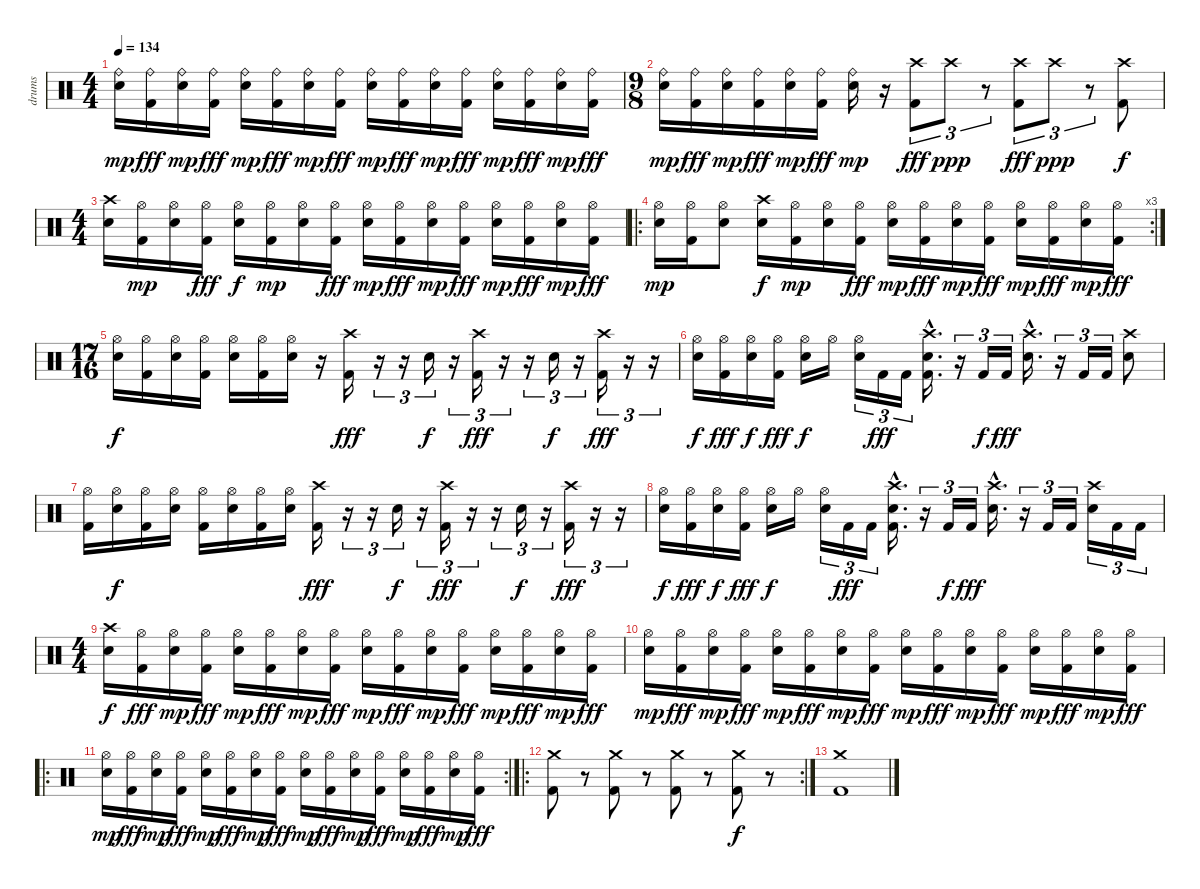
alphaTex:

\track ("drums" "drums") {instrument percussion}
\staff {score}
\articulation defaults
\ts (4 4)
\tempo 134
\clef neutral
\ks c
("Ride (bell)" "Snare (hit) 2").16{dy mp} ("Ride (bell)" "Kick (hit) 2").16{dy fff} ("Ride (bell)" "Snare (hit) 2").16{dy mp} ("Ride (bell)" "Kick (hit) 2").16{dy fff} ("Ride (bell)" "Snare (hit) 2").16{dy mp} ("Ride (bell)" "Kick (hit) 2").16{dy fff} ("Ride (bell)" "Snare (hit) 2").16{dy mp} ("Ride (bell)" "Kick (hit) 2").16{dy fff} ("Ride (bell)" "Snare (hit) 2").16{dy mp} ("Ride (bell)" "Kick (hit) 2").16{dy fff} ("Ride (bell)" "Snare (hit) 2").16{dy mp} ("Ride (bell)" "Kick (hit) 2").16{dy fff} ("Ride (bell)" "Snare (hit) 2").16{dy mp} ("Ride (bell)" "Kick (hit) 2").16{dy fff} ("Ride (bell)" "Snare (hit) 2").16{dy mp} ("Ride (bell)" "Kick (hit) 2").16{dy fff} |
\ts (9 8)
("Ride (bell)" "Snare (hit) 2").16{dy mp} ("Ride (bell)" "Kick (hit) 2").16{dy fff} ("Ride (bell)" "Snare (hit) 2").16{dy mp} ("Ride (bell)" "Kick (hit) 2").16{dy fff} ("Ride (bell)" "Snare (hit) 2").16{dy mp} ("Ride (bell)" "Kick (hit) 2").16{dy fff} ("Ride (bell)" "Snare (hit) 2").16{dy mp} r.16 ("Crash high (hit)" "Kick (hit) 2").8{tu (3 2) dy fff} "Crash high (hit)".8{tu (3 2) dy ppp} r.8{tu (3 2)} ("Crash high (hit)" "Kick (hit) 2").8{tu (3 2) dy fff} "Crash high (hit)".8{tu (3 2) dy ppp} r.8{tu (3 2)} ("Crash high (hit)" "Kick (hit) 2").8{dy f} |
\ts (4 4)
("Crash high (hit)" "Snare (hit) 2").16 ("Hi-Hat (open)" "Kick (hit) 2").16{dy mp} ("Hi-Hat (open)" "Snare (hit) 2").16 ("Hi-Hat (open)" "Kick (hit) 2").16{dy fff} ("Hi-Hat (open)" "Snare (hit) 2").16{dy f} ("Hi-Hat (open)" "Kick (hit) 2").16{dy mp} ("Hi-Hat (open)" "Snare (hit) 2").16 ("Hi-Hat (open)" "Kick (hit) 2").16{dy fff} ("Hi-Hat (open)" "Snare (hit) 2").16{dy mp} ("Hi-Hat (open)" "Kick (hit) 2").16{dy fff} ("Hi-Hat (open)" "Snare (hit) 2").16{dy mp} ("Hi-Hat (open)" "Kick (hit) 2").16{dy fff} ("Hi-Hat (open)" "Snare (hit) 2").16{dy mp} ("Hi-Hat (open)" "Kick (hit) 2").16{dy fff} ("Hi-Hat (open)" "Snare (hit) 2").16{dy mp} ("Hi-Hat (open)" "Kick (hit) 2").16{dy fff} |
\ro
\rc 3
("Hi-Hat (open)" "Snare (hit) 2").16{dy mp} ("Hi-Hat (open)" "Kick (hit) 2").16 ("Hi-Hat (open)" "Snare (hit) 2").8 ("Crash high (hit)" "Snare (hit) 2").16{dy f} ("Hi-Hat (open)" "Kick (hit) 2").16{dy mp} ("Hi-Hat (open)" "Snare (hit) 2").16 ("Hi-Hat (open)" "Kick (hit) 2").16{dy fff} ("Hi-Hat (open)" "Snare (hit) 2").16{dy mp} ("Hi-Hat (open)" "Kick (hit) 2").16{dy fff} ("Hi-Hat (open)" "Snare (hit) 2").16{dy mp} ("Hi-Hat (open)" "Kick (hit) 2").16{dy fff} ("Hi-Hat (open)" "Snare (hit) 2").16{dy mp} ("Hi-Hat (open)" "Kick (hit) 2").16{dy fff} ("Hi-Hat (open)" "Snare (hit) 2").16{dy mp} ("Hi-Hat (open)" "Kick (hit) 2").16{dy fff} |
\ts (17 16)
("Hi-Hat (open)" "Snare (hit) 2").16{dy f} ("Hi-Hat (open)" "Kick (hit) 2").16 ("Hi-Hat (open)" "Snare (hit) 2").16 ("Hi-Hat (open)" "Kick (hit) 2").16 ("Hi-Hat (open)" "Snare (hit) 2").16 ("Hi-Hat (open)" "Kick (hit) 2").16 ("Hi-Hat (open)" "Snare (hit) 2").16 r.16 ("Crash high (hit)" "Kick (hit) 2").16{dy fff} r.16{tu (3 2)} r.16{tu (3 2)} "Snare (hit) 2".16{tu (3 2) dy f} r.16{tu (3 2)} ("Crash high (hit)" "Kick (hit) 2").16{tu (3 2) dy fff} r.16{tu (3 2)} r.16{tu (3 2)} "Snare (hit) 2".16{tu (3 2) dy f} r.16{tu (3 2)} ("Crash high (hit)" "Kick (hit) 2").16{tu (3 2) dy fff} r.16{tu (3 2)} r.16{tu (3 2)} |
("Hi-Hat (open)" "Snare (hit) 2").16{dy f} ("Hi-Hat (open)" "Kick (hit) 2").16{dy fff} ("Hi-Hat (open)" "Snare (hit) 2").16{dy f} ("Hi-Hat (open)" "Kick (hit) 2").16{dy fff} ("Hi-Hat (open)" "Snare (hit) 2").16{dy f} "Hi-Hat (open)".16 ("Hi-Hat (open)" "Snare (hit) 2").16{tu (3 2)} "Kick (hit) 2".16{tu (3 2) dy fff} "Kick (hit) 2".16{tu (3 2)} ("Crash high (hit)"{hac} "Snare (hit) 2"{hac} "Kick (hit) 2"{hac}).16{d} r.16{tu (3 2)} "Kick (hit) 2".16{tu (3 2) dy f} "Kick (hit) 2".16{tu (3 2) dy fff} ("Crash high (hit)"{hac} "Snare (hit) 2"{hac}).16{d} r.16{tu (3 2)} "Kick (hit) 2".16{tu (3 2)} "Kick (hit) 2".16{tu (3 2)} ("Crash high (hit)" "Snare (hit) 2").8 |
("Hi-Hat (open)" "Kick (hit) 2").16 ("Hi-Hat (open)" "Snare (hit) 2").16{dy f} ("Hi-Hat (open)" "Kick (hit) 2").16 ("Hi-Hat (open)" "Snare (hit) 2").16 ("Hi-Hat (open)" "Kick (hit) 2").16 ("Hi-Hat (open)" "Snare (hit) 2").16 ("Hi-Hat (open)" "Kick (hit) 2").16 ("Hi-Hat (open)" "Snare (hit) 2").16 ("Crash high (hit)" "Kick (hit) 2").16{dy fff} r.16{tu (3 2)} r.16{tu (3 2)} "Snare (hit) 2".16{tu (3 2) dy f} r.16{tu (3 2)} ("Crash high (hit)" "Kick (hit) 2").16{tu (3 2) dy fff} r.16{tu (3 2)} r.16{tu (3 2)} "Snare (hit) 2".16{tu (3 2) dy f} r.16{tu (3 2)} ("Crash high (hit)" "Kick (hit) 2").16{tu (3 2) dy fff} r.16{tu (3 2)} r.16{tu (3 2)} |
("Hi-Hat (open)" "Snare (hit) 2").16{dy f} ("Hi-Hat (open)" "Kick (hit) 2").16{dy fff} ("Hi-Hat (open)" "Snare (hit) 2").16{dy f} ("Hi-Hat (open)" "Kick (hit) 2").16{dy fff} ("Hi-Hat (open)" "Snare (hit) 2").16{dy f} "Hi-Hat (open)".16 ("Hi-Hat (open)" "Snare (hit) 2").16{tu (3 2)} "Kick (hit) 2".16{tu (3 2) dy fff} "Kick (hit) 2".16{tu (3 2)} ("Crash high (hit)"{hac} "Snare (hit) 2"{hac} "Kick (hit) 2"{hac}).16{d} r.16{tu (3 2)} "Kick (hit) 2".16{tu (3 2) dy f} "Kick (hit) 2".16{tu (3 2) dy fff} ("Crash high (hit)"{hac} "Snare (hit) 2"{hac}).16{d} r.16{tu (3 2)} "Kick (hit) 2".16{tu (3 2)} "Kick (hit) 2".16{tu (3 2)} ("Crash high (hit)" "Snare (hit) 2").16{tu (3 2)} "Kick (hit) 2".16{tu (3 2)} "Kick (hit) 2".16{tu (3 2)} |
\ts (4 4)
("Crash high (hit)" "Snare (hit) 2").16{dy f} ("Hi-Hat (open)" "Kick (hit) 2").16{dy fff} ("Hi-Hat (open)" "Snare (hit) 2").16{dy mp} ("Hi-Hat (open)" "Kick (hit) 2").16{dy fff} ("Hi-Hat (open)" "Snare (hit) 2").16{dy mp} ("Hi-Hat (open)" "Kick (hit) 2").16{dy fff} ("Hi-Hat (open)" "Snare (hit) 2").16{dy mp} ("Hi-Hat (open)" "Kick (hit) 2").16{dy fff} ("Hi-Hat (open)" "Snare (hit) 2").16{dy mp} ("Hi-Hat (open)" "Kick (hit) 2").16{dy fff} ("Hi-Hat (open)" "Snare (hit) 2").16{dy mp} ("Hi-Hat (open)" "Kick (hit) 2").16{dy fff} ("Hi-Hat (open)" "Snare (hit) 2").16{dy mp} ("Hi-Hat (open)" "Kick (hit) 2").16{dy fff} ("Hi-Hat (open)" "Snare (hit) 2").16{dy mp} ("Hi-Hat (open)" "Kick (hit) 2").16{dy fff} |
("Hi-Hat (open)" "Snare (hit) 2").16{dy mp} ("Hi-Hat (open)" "Kick (hit) 2").16{dy fff} ("Hi-Hat (open)" "Snare (hit) 2").16{dy mp} ("Hi-Hat (open)" "Kick (hit) 2").16{dy fff} ("Hi-Hat (open)" "Snare (hit) 2").16{dy mp} ("Hi-Hat (open)" "Kick (hit) 2").16{dy fff} ("Hi-Hat (open)" "Snare (hit) 2").16{dy mp} ("Hi-Hat (open)" "Kick (hit) 2").16{dy fff} ("Hi-Hat (open)" "Snare (hit) 2").16{dy mp} ("Hi-Hat (open)" "Kick (hit) 2").16{dy fff} ("Hi-Hat (open)" "Snare (hit) 2").16{dy mp} ("Hi-Hat (open)" "Kick (hit) 2").16{dy fff} ("Hi-Hat (open)" "Snare (hit) 2").16{dy mp} ("Hi-Hat (open)" "Kick (hit) 2").16{dy fff} ("Hi-Hat (open)" "Snare (hit) 2").16{dy mp} ("Hi-Hat (open)" "Kick (hit) 2").16{dy fff} |
\ro
\rc 2
("Hi-Hat (open)" "Snare (hit) 2").16{dy mp} ("Hi-Hat (open)" "Kick (hit) 2").16{dy fff} ("Hi-Hat (open)" "Snare (hit) 2").16{dy mp} ("Hi-Hat (open)" "Kick (hit) 2").16{dy fff} ("Hi-Hat (open)" "Snare (hit) 2").16{dy mp} ("Hi-Hat (open)" "Kick (hit) 2").16{dy fff} ("Hi-Hat (open)" "Snare (hit) 2").16{dy mp} ("Hi-Hat (open)" "Kick (hit) 2").16{dy fff} ("Hi-Hat (open)" "Snare (hit) 2").16{dy mp} ("Hi-Hat (open)" "Kick (hit) 2").16{dy fff} ("Hi-Hat (open)" "Snare (hit) 2").16{dy mp} ("Hi-Hat (open)" "Kick (hit) 2").16{dy fff} ("Hi-Hat (open)" "Snare (hit) 2").16{dy mp} ("Hi-Hat (open)" "Kick (hit) 2").16{dy fff} ("Hi-Hat (open)" "Snare (hit) 2").16{dy mp} ("Hi-Hat (open)" "Kick (hit) 2").16{dy fff} |
\ro
\rc 2
("Crash medium (hit)" "Kick (hit) 2").8 r.8 ("Crash medium (hit)" "Kick (hit) 2").8 r.8 ("Crash medium (hit)" "Kick (hit) 2").8 r.8 ("Crash medium (hit)" "Kick (hit) 2").8{dy f} r.8 |
("Crash medium (hit)" "Kick (hit) 2").1
